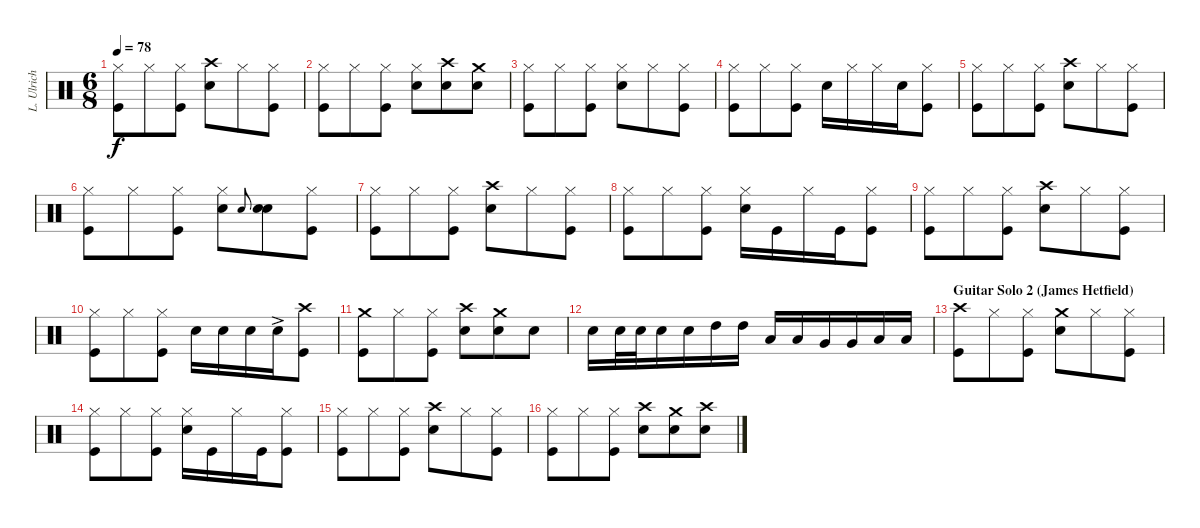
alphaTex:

\track ("L. Ulrich" "L. Ulrich") {instrument percussion}
\staff {score}
\articulation defaults
\ts (6 8)
\tempo 78
\clef neutral
\ks c
("Hi-Hat (closed)" "Kick (hit)").8{dy f} "Hi-Hat (closed)".8 ("Hi-Hat (closed)" "Kick (hit)").8 ("Crash high (hit)" "Snare (hit) 2").8 "Hi-Hat (closed)".8 ("Hi-Hat (closed)" "Kick (hit)").8 |
("Hi-Hat (closed)" "Kick (hit)").8 "Hi-Hat (closed)".8 ("Hi-Hat (closed)" "Kick (hit)").8 ("Hi-Hat (closed)" "Snare (hit) 2").8 ("Crash high (hit)" "Snare (hit) 2").8 ("Crash medium (hit)" "Snare (hit) 2").8 |
("Hi-Hat (closed)" "Kick (hit)").8 "Hi-Hat (closed)".8 ("Hi-Hat (closed)" "Kick (hit)").8 ("Hi-Hat (closed)" "Snare (hit) 2").8 "Hi-Hat (closed)".8 ("Hi-Hat (closed)" "Kick (hit)").8 |
("Hi-Hat (closed)" "Kick (hit)").8 "Hi-Hat (closed)".8 ("Hi-Hat (closed)" "Kick (hit)").8 "Snare (hit) 2".16 "Hi-Hat (closed)".16 "Hi-Hat (closed)".16 "Snare (hit) 2".16 ("Hi-Hat (closed)" "Kick (hit)").8 |
("Hi-Hat (closed)" "Kick (hit)").8 "Hi-Hat (closed)".8 ("Hi-Hat (closed)" "Kick (hit)").8 ("Crash high (hit)" "Snare (hit) 2").8 "Hi-Hat (closed)".8 ("Hi-Hat (closed)" "Kick (hit)").8 |
("Hi-Hat (closed)" "Kick (hit)").8 "Hi-Hat (closed)".8 ("Hi-Hat (closed)" "Kick (hit)").8 ("Hi-Hat (closed)" "Snare (hit) 2").8 "Snare (hit) 2".8{gr onbeat} ("Snare (hit) 2" "Snare (hit) 2").8 ("Hi-Hat (closed)" "Kick (hit)").8 |
("Hi-Hat (closed)" "Kick (hit)").8 "Hi-Hat (closed)".8 ("Hi-Hat (closed)" "Kick (hit)").8 ("Crash high (hit)" "Snare (hit) 2").8 "Hi-Hat (closed)".8 ("Hi-Hat (closed)" "Kick (hit)").8 |
("Hi-Hat (closed)" "Kick (hit)").8 "Hi-Hat (closed)".8 ("Hi-Hat (closed)" "Kick (hit)").8 ("Hi-Hat (closed)" "Snare (hit) 2").16 "Kick (hit)".16 "Hi-Hat (closed)".16 "Kick (hit)".16 ("Hi-Hat (closed)" "Kick (hit)").8 |
("Hi-Hat (closed)" "Kick (hit)").8 "Hi-Hat (closed)".8 ("Hi-Hat (closed)" "Kick (hit)").8 ("Crash high (hit)" "Snare (hit) 2").8 "Hi-Hat (closed)".8 ("Hi-Hat (closed)" "Kick (hit)").8 |
("Hi-Hat (closed)" "Kick (hit)").8 "Hi-Hat (closed)".8 ("Hi-Hat (closed)" "Kick (hit)").8 "Snare (hit) 2".16 "Snare (hit) 2".16 "Snare (hit) 2".16 "Snare (hit) 2"{ac}.16 ("Crash high (hit)" "Kick (hit)").8 |
("Crash medium (hit)" "Kick (hit)").8 "Hi-Hat (closed)".8 ("Hi-Hat (closed)" "Kick (hit)").8 ("Crash high (hit)" "Snare (hit) 2").8 ("Crash medium (hit)" "Snare (hit) 2").8 "Snare (hit) 2".8 |
"Snare (hit) 2".16 "Snare (hit) 2".32 "Snare (hit) 2".32 "Snare (hit) 2".16 "Snare (hit) 2".16 "High Tom (hit)".16 "High Tom (hit)".16 "Low Tom (hit)".16 "Low Tom (hit)".16 "Very Low Tom (hit)".16 "Very Low Tom (hit)".16 "Low Floor Tom (hit)".16 "Low Floor Tom (hit)".16 |
\section ("" "Guitar Solo 2 (James Hetfield)")
("Crash high (hit)" "Kick (hit)").8 "Hi-Hat (closed)".8 ("Hi-Hat (closed)" "Kick (hit)").8 ("Crash medium (hit)" "Snare (hit) 2").8 "Hi-Hat (closed)".8 ("Hi-Hat (closed)" "Kick (hit)").8 |
("Hi-Hat (closed)" "Kick (hit)").8 "Hi-Hat (closed)".8 ("Hi-Hat (closed)" "Kick (hit)").8 ("Hi-Hat (closed)" "Snare (hit) 2").16 "Kick (hit)".16 "Hi-Hat (closed)".16 "Kick (hit)".16 ("Hi-Hat (closed)" "Kick (hit)").8 |
("Hi-Hat (closed)" "Kick (hit)").8 "Hi-Hat (closed)".8 ("Hi-Hat (closed)" "Kick (hit)").8 ("Crash high (hit)" "Snare (hit) 2").8 "Hi-Hat (closed)".8 ("Hi-Hat (closed)" "Kick (hit)").8 |
("Hi-Hat (closed)" "Kick (hit)").8 "Hi-Hat (closed)".8 ("Hi-Hat (closed)" "Kick (hit)").8 ("Crash high (hit)" "Snare (hit) 2").8 ("Crash medium (hit)" "Snare (hit) 2").8 ("Crash high (hit)" "Snare (hit) 2").8
